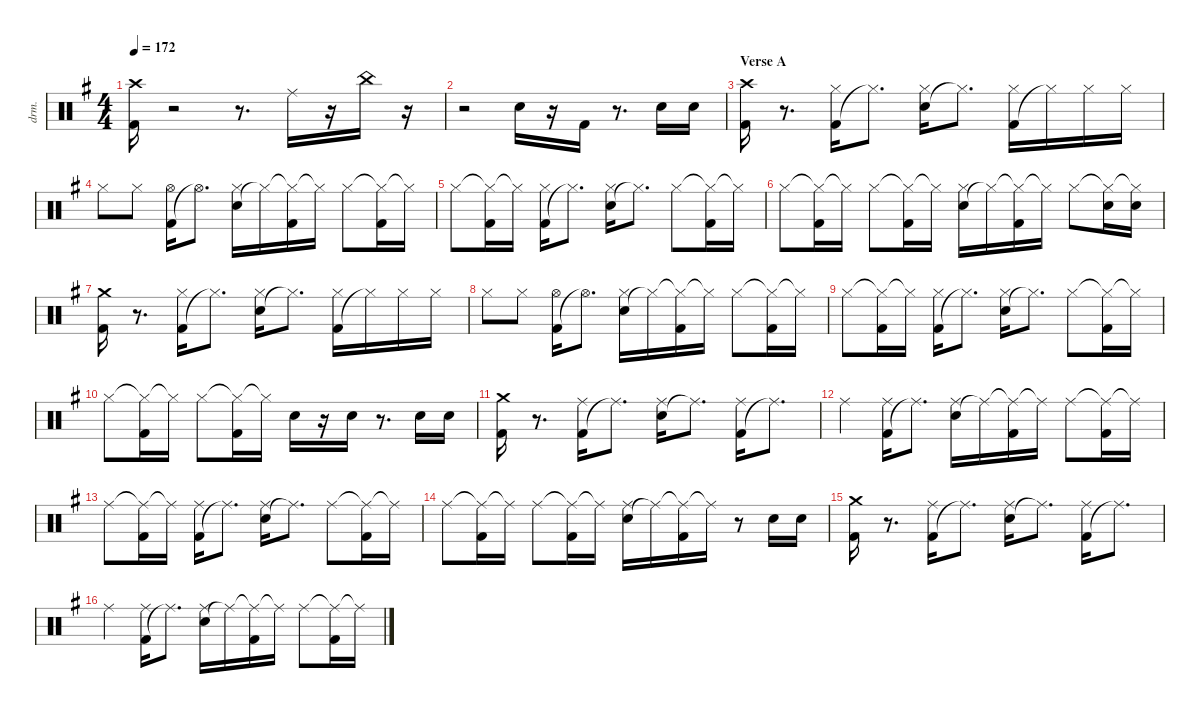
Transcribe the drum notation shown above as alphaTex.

\defaultSystemsLayout 4
\hideDynamics
\bracketExtendMode nobrackets
\otherSystemsTrackNameOrientation horizontal
\track ("Shinya" "drm.") {instrument percussion}
\staff {score}
\articulation defaults
\ts (4 4)
\tempo 172
\clef neutral
\ks eminor
("Kick (hit) 2"{acc forcenatural} "Crash high (hit)"{acc #}).16{dy fff beam Down} r.2{beam Down} r.8{d beam Down} "Ride (middle)"{acc #}.16{beam Down} r.16{beam Down} "China (hit)"{acc forcenatural}.16{dy ff beam Down} r.16{beam Down} |
r.2{beam Down} "Snare (hit) 2"{acc forcenatural}.16{dy fff beam Down} r.16{beam Down} "Kick (hit) 2"{acc forcenatural}.16{beam Up} r.8{d beam Up} "Snare (hit) 2"{acc forcenatural}.16{beam Down} "Snare (hit) 2"{acc forcenatural}.16{beam Down} |
\section ("" "Verse A")
("Kick (hit) 2"{acc forcenatural} "Crash high (hit)"{acc #}).16{beam Down} r.8{d beam Down} ("Kick (hit) 2"{acc forcenatural} "Hi-Hat (closed)"{acc #}).16{beam Down} "Hi-Hat (closed)"{t acc #}.8{d beam Down} ("Snare (hit) 2"{acc forcenatural} "Hi-Hat (closed)"{acc #}).16{beam Down} "Hi-Hat (closed)"{t acc #}.8{d beam Down} ("Kick (hit) 2"{acc forcenatural} "Hi-Hat (closed)"{acc #}).16{beam Down} "Hi-Hat (closed)"{t acc #}.16{beam Down} "Hi-Hat (closed)"{acc #}.16{beam Down} "Hi-Hat (closed)"{acc #}.16{beam Down} |
"Hi-Hat (closed)"{acc #}.8{beam Down} "Hi-Hat (closed)"{acc #}.8{beam Down} ("Kick (hit) 2"{acc forcenatural} "Hi-Hat (open)"{acc #}).16{beam Down} "Hi-Hat (open)"{t acc #}.8{d beam Down} ("Snare (hit) 2"{acc forcenatural} "Hi-Hat (closed)"{acc #}).16{beam Down} "Hi-Hat (closed)"{t acc #}.16{beam Down} ("Hi-Hat (closed)"{t acc #} "Kick (hit) 2"{acc forcenatural}).16{beam Down} "Hi-Hat (closed)"{t acc #}.16{beam Down} "Hi-Hat (closed)"{acc #}.8{beam Down} ("Hi-Hat (closed)"{t acc #} "Kick (hit) 2"{acc forcenatural}).16{beam Down} "Hi-Hat (closed)"{t acc #}.16{beam Down} |
"Hi-Hat (closed)"{acc #}.8{beam Down} ("Hi-Hat (closed)"{t acc #} "Kick (hit) 2"{acc forcenatural}).16{beam Down} "Hi-Hat (closed)"{t acc #}.16{beam Down} ("Kick (hit) 2"{acc forcenatural} "Hi-Hat (closed)"{acc #}).16{beam Down} "Hi-Hat (closed)"{t acc #}.8{d beam Down} ("Snare (hit) 2"{acc forcenatural} "Hi-Hat (closed)"{acc #}).16{beam Down} "Hi-Hat (closed)"{t acc #}.8{d beam Down} "Hi-Hat (closed)"{acc #}.8{beam Down} ("Hi-Hat (closed)"{t acc #} "Kick (hit) 2"{acc forcenatural}).16{beam Down} "Hi-Hat (closed)"{t acc #}.16{beam Down} |
"Hi-Hat (closed)"{acc #}.8{beam Down} ("Hi-Hat (closed)"{t acc #} "Kick (hit) 2"{acc forcenatural}).16{beam Down} "Hi-Hat (closed)"{t acc #}.16{beam Down} "Hi-Hat (closed)"{acc #}.8{beam Down} ("Hi-Hat (closed)"{t acc #} "Kick (hit) 2"{acc forcenatural}).16{beam Down} "Hi-Hat (closed)"{t acc #}.16{beam Down} ("Snare (hit) 2"{acc forcenatural} "Hi-Hat (closed)"{acc #}).16{beam Down} "Hi-Hat (closed)"{t acc #}.16{beam Down} ("Hi-Hat (closed)"{t acc #} "Kick (hit) 2"{acc forcenatural}).16{beam Down} "Hi-Hat (closed)"{t acc #}.16{beam Down} "Hi-Hat (closed)"{acc #}.8{beam Down} ("Hi-Hat (closed)"{t acc #} "Snare (hit) 2"{acc forcenatural}).16{beam Down} ("Hi-Hat (closed)"{t acc #} "Snare (hit) 2"{acc forcenatural}).16{beam Down} |
("Kick (hit) 2"{acc forcenatural} "Crash medium (hit)"{acc forcenatural}).16{beam Down} r.8{d beam Down} ("Kick (hit) 2"{acc forcenatural} "Hi-Hat (closed)"{acc #}).16{beam Down} "Hi-Hat (closed)"{t acc #}.8{d beam Down} ("Snare (hit) 2"{acc forcenatural} "Hi-Hat (closed)"{acc #}).16{beam Down} "Hi-Hat (closed)"{t acc #}.8{d beam Down} ("Kick (hit) 2"{acc forcenatural} "Hi-Hat (closed)"{acc #}).16{beam Down} "Hi-Hat (closed)"{t acc #}.16{beam Down} "Hi-Hat (closed)"{acc #}.16{beam Down} "Hi-Hat (closed)"{acc #}.16{beam Down} |
"Hi-Hat (closed)"{acc #}.8{beam Down} "Hi-Hat (closed)"{acc #}.8{beam Down} ("Kick (hit) 2"{acc forcenatural} "Hi-Hat (open)"{acc #}).16{beam Down} "Hi-Hat (open)"{t acc #}.8{d beam Down} ("Snare (hit) 2"{acc forcenatural} "Hi-Hat (closed)"{acc #}).16{beam Down} "Hi-Hat (closed)"{t acc #}.16{beam Down} ("Hi-Hat (closed)"{t acc #} "Kick (hit) 2"{acc forcenatural}).16{beam Down} "Hi-Hat (closed)"{t acc #}.16{beam Down} "Hi-Hat (closed)"{acc #}.8{beam Down} ("Hi-Hat (closed)"{t acc #} "Kick (hit) 2"{acc forcenatural}).16{beam Down} "Hi-Hat (closed)"{t acc #}.16{beam Down} |
"Hi-Hat (closed)"{acc #}.8{beam Down} ("Hi-Hat (closed)"{t acc #} "Kick (hit) 2"{acc forcenatural}).16{beam Down} "Hi-Hat (closed)"{t acc #}.16{beam Down} ("Kick (hit) 2"{acc forcenatural} "Hi-Hat (closed)"{acc #}).16{beam Down} "Hi-Hat (closed)"{t acc #}.8{d beam Down} ("Snare (hit) 2"{acc forcenatural} "Hi-Hat (closed)"{acc #}).16{beam Down} "Hi-Hat (closed)"{t acc #}.8{d beam Down} "Hi-Hat (closed)"{acc #}.8{beam Down} ("Hi-Hat (closed)"{t acc #} "Kick (hit) 2"{acc forcenatural}).16{beam Down} "Hi-Hat (closed)"{t acc #}.16{beam Down} |
"Hi-Hat (closed)"{acc #}.8{beam Down} ("Hi-Hat (closed)"{t acc #} "Kick (hit) 2"{acc forcenatural}).16{beam Down} "Hi-Hat (closed)"{t acc #}.16{beam Down} "Hi-Hat (closed)"{acc #}.8{beam Down} ("Hi-Hat (closed)"{t acc #} "Kick (hit) 2"{acc forcenatural}).16{beam Down} "Hi-Hat (closed)"{t acc #}.16{beam Down} "Snare (hit) 2"{acc forcenatural}.16{beam Down} r.16{beam Down} "Snare (hit) 2"{acc forcenatural}.16{beam Down} r.8{d beam Down} "Snare (hit) 2"{acc forcenatural}.16{beam Down} "Snare (hit) 2"{acc forcenatural}.16{beam Down} |
("Kick (hit) 2"{acc forcenatural} "Crash medium (hit)"{acc forcenatural}).16{beam Down} r.8{d beam Down} ("Kick (hit) 2"{acc forcenatural} "Ride (middle)"{acc #}).16{beam Down} "Ride (middle)"{t acc #}.8{d beam Down} ("Snare (hit) 2"{acc forcenatural} "Ride (middle)"{acc #}).16{beam Down} "Ride (middle)"{t acc #}.8{d beam Down} ("Kick (hit) 2"{acc forcenatural} "Ride (middle)"{acc #}).16{beam Down} "Ride (middle)"{t acc #}.8{d beam Down} |
"Ride (middle)"{acc #}.4{beam Down} ("Kick (hit) 2"{acc forcenatural} "Ride (middle)"{acc #}).16{beam Down} "Ride (middle)"{t acc #}.8{d beam Down} ("Snare (hit) 2"{acc forcenatural} "Ride (middle)"{acc #}).16{beam Down} "Ride (middle)"{t acc #}.16{beam Down} ("Ride (middle)"{t acc #} "Kick (hit) 2"{acc forcenatural}).16{beam Down} "Ride (middle)"{t acc #}.16{beam Down} "Ride (middle)"{acc #}.8{beam Down} ("Ride (middle)"{t acc #} "Kick (hit) 2"{acc forcenatural}).16{beam Down} "Ride (middle)"{t acc #}.16{beam Down} |
"Ride (middle)"{acc #}.8{beam Down} ("Ride (middle)"{t acc #} "Kick (hit) 2"{acc forcenatural}).16{beam Down} "Ride (middle)"{t acc #}.16{beam Down} ("Kick (hit) 2"{acc forcenatural} "Ride (middle)"{acc #}).16{beam Down} "Ride (middle)"{t acc #}.8{d beam Down} ("Snare (hit) 2"{acc forcenatural} "Ride (middle)"{acc #}).16{beam Down} "Ride (middle)"{t acc #}.8{d beam Down} "Ride (middle)"{acc #}.8{beam Down} ("Ride (middle)"{t acc #} "Kick (hit) 2"{acc forcenatural}).16{beam Down} "Ride (middle)"{t acc #}.16{beam Down} |
"Ride (middle)"{acc #}.8{beam Down} ("Ride (middle)"{t acc #} "Kick (hit) 2"{acc forcenatural}).16{beam Down} "Ride (middle)"{t acc #}.16{beam Down} "Ride (middle)"{acc #}.8{beam Down} ("Ride (middle)"{t acc #} "Kick (hit) 2"{acc forcenatural}).16{beam Down} "Ride (middle)"{t acc #}.16{beam Down} ("Snare (hit) 2"{acc forcenatural} "Ride (middle)"{acc #}).16{beam Down} "Ride (middle)"{t acc #}.16{beam Down} ("Ride (middle)"{t acc #} "Kick (hit) 2"{acc forcenatural}).16{beam Down} "Ride (middle)"{t acc #}.16{beam Down} r.8{beam Down} "Snare (hit) 2"{acc forcenatural}.16{beam Down} "Snare (hit) 2"{acc forcenatural}.16{beam Down} |
("Kick (hit) 2"{acc forcenatural} "Crash medium (hit)"{acc forcenatural}).16{beam Down} r.8{d beam Down} ("Kick (hit) 2"{acc forcenatural} "Ride (middle)"{acc #}).16{beam Down} "Ride (middle)"{t acc #}.8{d beam Down} ("Snare (hit) 2"{acc forcenatural} "Ride (middle)"{acc #}).16{beam Down} "Ride (middle)"{t acc #}.8{d beam Down} ("Kick (hit) 2"{acc forcenatural} "Ride (middle)"{acc #}).16{beam Down} "Ride (middle)"{t acc #}.8{d beam Down} |
"Ride (middle)"{acc #}.4{beam Down} ("Kick (hit) 2"{acc forcenatural} "Ride (middle)"{acc #}).16{beam Down} "Ride (middle)"{t acc #}.8{d beam Down} ("Snare (hit) 2"{acc forcenatural} "Ride (middle)"{acc #}).16{beam Down} "Ride (middle)"{t acc #}.16{beam Down} ("Ride (middle)"{t acc #} "Kick (hit) 2"{acc forcenatural}).16{beam Down} "Ride (middle)"{t acc #}.16{beam Down} "Ride (middle)"{acc #}.8{beam Down} ("Ride (middle)"{t acc #} "Kick (hit) 2"{acc forcenatural}).16{beam Down} "Ride (middle)"{t acc #}.16{beam Down}
